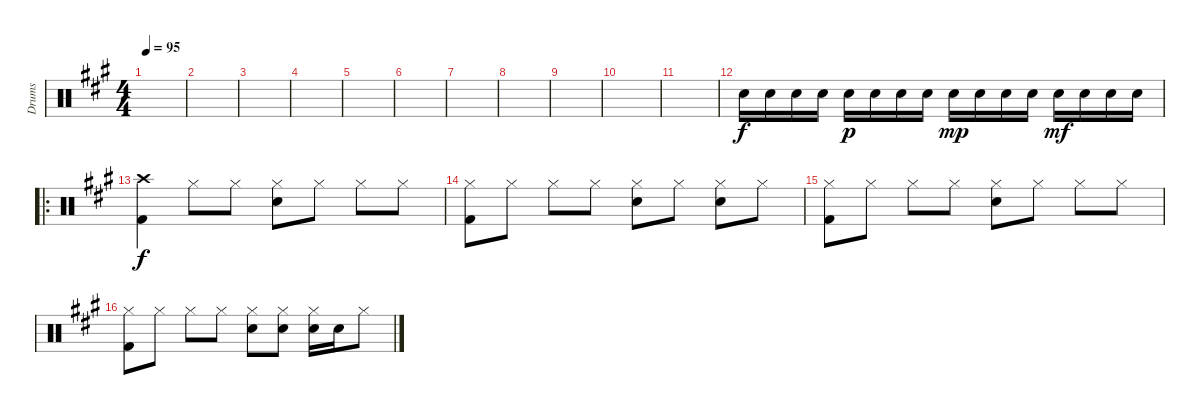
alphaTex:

\track ("Drums" "Drums") {instrument percussion}
\staff {score}
\articulation defaults
\ts (4 4)
\tempo 95
\clef neutral
\ks a
|
|
|
|
|
|
|
|
|
|
|
"Snare (hit) 2".16 "Snare (hit) 2".16 "Snare (hit) 2".16 "Snare (hit) 2".16 "Snare (hit) 2".16{dy p} "Snare (hit) 2".16 "Snare (hit) 2".16 "Snare (hit) 2".16 "Snare (hit) 2".16{dy mp} "Snare (hit) 2".16 "Snare (hit) 2".16 "Snare (hit) 2".16 "Snare (hit) 2".16{dy mf} "Snare (hit) 2".16 "Snare (hit) 2".16 "Snare (hit) 2".16 |
\ro
("Crash high (hit)" "Kick (hit) 2").4{dy f} "Hi-Hat (closed)".8 "Hi-Hat (closed)".8 ("Hi-Hat (closed)" "Snare (hit) 2").8 "Hi-Hat (closed)".8 "Hi-Hat (closed)".8 "Hi-Hat (closed)".8 |
("Hi-Hat (closed)" "Kick (hit) 2").8 "Hi-Hat (closed)".8 "Hi-Hat (closed)".8 "Hi-Hat (closed)".8 ("Hi-Hat (closed)" "Snare (hit) 2").8 "Hi-Hat (closed)".8 ("Hi-Hat (closed)" "Snare (hit) 2").8 "Hi-Hat (closed)".8 |
("Hi-Hat (closed)" "Kick (hit) 2").8 "Hi-Hat (closed)".8 "Hi-Hat (closed)".8 "Hi-Hat (closed)".8 ("Hi-Hat (closed)" "Snare (hit) 2").8 "Hi-Hat (closed)".8 "Hi-Hat (closed)".8 "Hi-Hat (closed)".8 |
("Hi-Hat (closed)" "Kick (hit) 2").8 "Hi-Hat (closed)".8 "Hi-Hat (closed)".8 "Hi-Hat (closed)".8 ("Hi-Hat (closed)" "Snare (hit) 2").8 ("Hi-Hat (closed)" "Snare (hit) 2").8 ("Hi-Hat (closed)" "Snare (hit) 2").16 "Snare (hit) 2".16 "Hi-Hat (closed)".8
